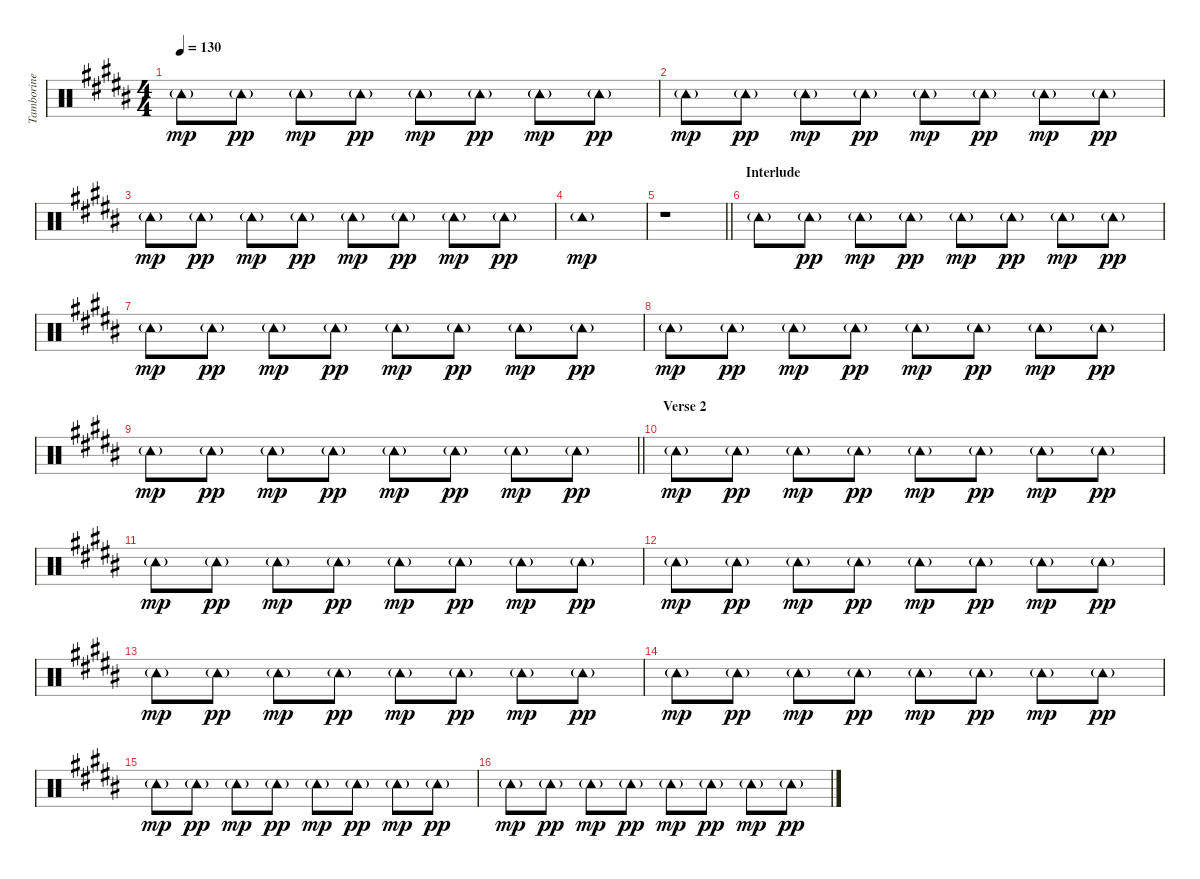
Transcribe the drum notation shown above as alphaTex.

\track ("Tamborine" "Tamborine") {instrument percussion}
\staff {score}
\articulation defaults
\ts (4 4)
\tempo 130
\clef neutral
\ks b "Tambourine (hit)"{g}.8{dy mp} "Tambourine (hit)"{g}.8{dy pp} "Tambourine (hit)"{g}.8{dy mp} "Tambourine (hit)"{g}.8{dy pp} "Tambourine (hit)"{g}.8{dy mp} "Tambourine (hit)"{g}.8{dy pp} "Tambourine (hit)"{g}.8{dy mp} "Tambourine (hit)"{g}.8{dy pp}
|
"Tambourine (hit)"{g}.8{dy mp} "Tambourine (hit)"{g}.8{dy pp} "Tambourine (hit)"{g}.8{dy mp} "Tambourine (hit)"{g}.8{dy pp} "Tambourine (hit)"{g}.8{dy mp} "Tambourine (hit)"{g}.8{dy pp} "Tambourine (hit)"{g}.8{dy mp} "Tambourine (hit)"{g}.8{dy pp} |
"Tambourine (hit)"{g}.8{dy mp} "Tambourine (hit)"{g}.8{dy pp} "Tambourine (hit)"{g}.8{dy mp} "Tambourine (hit)"{g}.8{dy pp} "Tambourine (hit)"{g}.8{dy mp} "Tambourine (hit)"{g}.8{dy pp} "Tambourine (hit)"{g}.8{dy mp} "Tambourine (hit)"{g}.8{dy pp} |
"Tambourine (hit)"{g}.1{dy mp} |
\barLineRight lightlight
r.1 |
\section ("" "Interlude")
"Tambourine (hit)"{g}.8 "Tambourine (hit)"{g}.8{dy pp} "Tambourine (hit)"{g}.8{dy mp} "Tambourine (hit)"{g}.8{dy pp} "Tambourine (hit)"{g}.8{dy mp} "Tambourine (hit)"{g}.8{dy pp} "Tambourine (hit)"{g}.8{dy mp} "Tambourine (hit)"{g}.8{dy pp} |
"Tambourine (hit)"{g}.8{dy mp} "Tambourine (hit)"{g}.8{dy pp} "Tambourine (hit)"{g}.8{dy mp} "Tambourine (hit)"{g}.8{dy pp} "Tambourine (hit)"{g}.8{dy mp} "Tambourine (hit)"{g}.8{dy pp} "Tambourine (hit)"{g}.8{dy mp} "Tambourine (hit)"{g}.8{dy pp} |
"Tambourine (hit)"{g}.8{dy mp} "Tambourine (hit)"{g}.8{dy pp} "Tambourine (hit)"{g}.8{dy mp} "Tambourine (hit)"{g}.8{dy pp} "Tambourine (hit)"{g}.8{dy mp} "Tambourine (hit)"{g}.8{dy pp} "Tambourine (hit)"{g}.8{dy mp} "Tambourine (hit)"{g}.8{dy pp} |
\barLineRight lightlight "Tambourine (hit)"{g}.8{dy mp} "Tambourine (hit)"{g}.8{dy pp} "Tambourine (hit)"{g}.8{dy mp} "Tambourine (hit)"{g}.8{dy pp} "Tambourine (hit)"{g}.8{dy mp} "Tambourine (hit)"{g}.8{dy pp} "Tambourine (hit)"{g}.8{dy mp} "Tambourine (hit)"{g}.8{dy pp}
|
\section ("" "Verse 2")
"Tambourine (hit)"{g}.8{dy mp} "Tambourine (hit)"{g}.8{dy pp} "Tambourine (hit)"{g}.8{dy mp} "Tambourine (hit)"{g}.8{dy pp} "Tambourine (hit)"{g}.8{dy mp} "Tambourine (hit)"{g}.8{dy pp} "Tambourine (hit)"{g}.8{dy mp} "Tambourine (hit)"{g}.8{dy pp} |
"Tambourine (hit)"{g}.8{dy mp} "Tambourine (hit)"{g}.8{dy pp} "Tambourine (hit)"{g}.8{dy mp} "Tambourine (hit)"{g}.8{dy pp} "Tambourine (hit)"{g}.8{dy mp} "Tambourine (hit)"{g}.8{dy pp} "Tambourine (hit)"{g}.8{dy mp} "Tambourine (hit)"{g}.8{dy pp} |
"Tambourine (hit)"{g}.8{dy mp} "Tambourine (hit)"{g}.8{dy pp} "Tambourine (hit)"{g}.8{dy mp} "Tambourine (hit)"{g}.8{dy pp} "Tambourine (hit)"{g}.8{dy mp} "Tambourine (hit)"{g}.8{dy pp} "Tambourine (hit)"{g}.8{dy mp} "Tambourine (hit)"{g}.8{dy pp} |
"Tambourine (hit)"{g}.8{dy mp} "Tambourine (hit)"{g}.8{dy pp} "Tambourine (hit)"{g}.8{dy mp} "Tambourine (hit)"{g}.8{dy pp} "Tambourine (hit)"{g}.8{dy mp} "Tambourine (hit)"{g}.8{dy pp} "Tambourine (hit)"{g}.8{dy mp} "Tambourine (hit)"{g}.8{dy pp} |
"Tambourine (hit)"{g}.8{dy mp} "Tambourine (hit)"{g}.8{dy pp} "Tambourine (hit)"{g}.8{dy mp} "Tambourine (hit)"{g}.8{dy pp} "Tambourine (hit)"{g}.8{dy mp} "Tambourine (hit)"{g}.8{dy pp} "Tambourine (hit)"{g}.8{dy mp} "Tambourine (hit)"{g}.8{dy pp} |
"Tambourine (hit)"{g}.8{dy mp} "Tambourine (hit)"{g}.8{dy pp} "Tambourine (hit)"{g}.8{dy mp} "Tambourine (hit)"{g}.8{dy pp} "Tambourine (hit)"{g}.8{dy mp} "Tambourine (hit)"{g}.8{dy pp} "Tambourine (hit)"{g}.8{dy mp} "Tambourine (hit)"{g}.8{dy pp} |
"Tambourine (hit)"{g}.8{dy mp} "Tambourine (hit)"{g}.8{dy pp} "Tambourine (hit)"{g}.8{dy mp} "Tambourine (hit)"{g}.8{dy pp} "Tambourine (hit)"{g}.8{dy mp} "Tambourine (hit)"{g}.8{dy pp} "Tambourine (hit)"{g}.8{dy mp} "Tambourine (hit)"{g}.8{dy pp}
